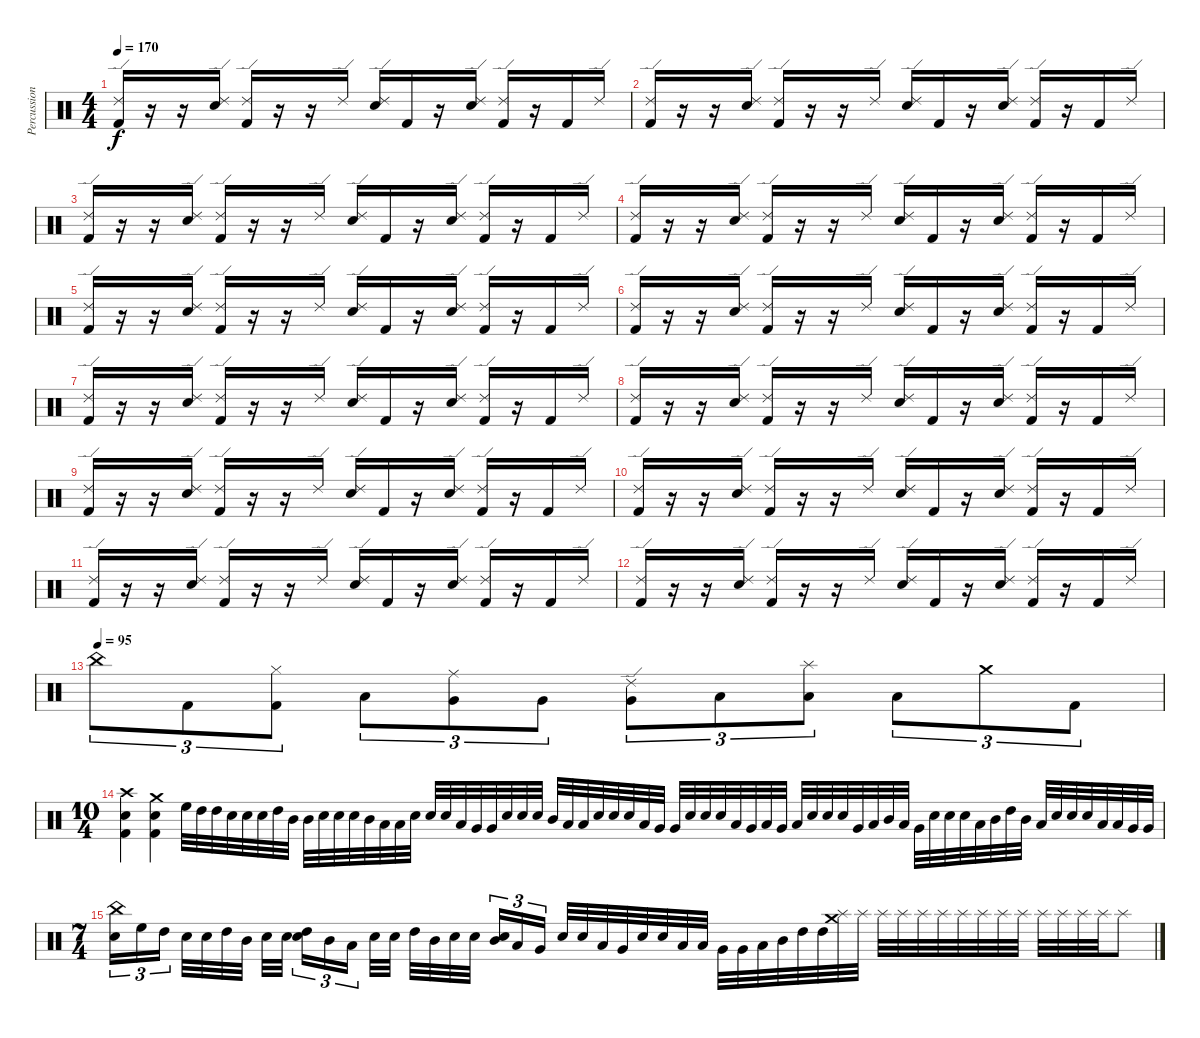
\track ("Percussion" "Percussion") {instrument percussion}
\staff {score}
\articulation defaults
\ts (4 4)
\tempo 170
\clef neutral
\ks c
("Ride (edge) 2" "Kick (hit) 2").16{dy f} r.16 r.16 ("Ride (edge) 2" "Electric Snare (hit)").16 ("Ride (edge) 2" "Kick (hit) 2").16 r.16 r.16 "Ride (edge) 2".16 ("Ride (edge) 2" "Electric Snare (hit)").16 "Kick (hit) 2".16 r.16 ("Ride (edge) 2" "Electric Snare (hit)").16 ("Ride (edge) 2" "Kick (hit) 2").16 r.16 "Kick (hit) 2".16 "Ride (edge) 2".16 |
("Ride (edge) 2" "Kick (hit) 2").16 r.16 r.16 ("Ride (edge) 2" "Electric Snare (hit)").16 ("Ride (edge) 2" "Kick (hit) 2").16 r.16 r.16 "Ride (edge) 2".16 ("Ride (edge) 2" "Electric Snare (hit)").16 "Kick (hit) 2".16 r.16 ("Ride (edge) 2" "Electric Snare (hit)").16 ("Ride (edge) 2" "Kick (hit) 2").16 r.16 "Kick (hit) 2".16 "Ride (edge) 2".16 |
("Ride (edge) 2" "Kick (hit) 2").16 r.16 r.16 ("Ride (edge) 2" "Electric Snare (hit)").16 ("Ride (edge) 2" "Kick (hit) 2").16 r.16 r.16 "Ride (edge) 2".16 ("Ride (edge) 2" "Electric Snare (hit)").16 "Kick (hit) 2".16 r.16 ("Ride (edge) 2" "Electric Snare (hit)").16 ("Ride (edge) 2" "Kick (hit) 2").16 r.16 "Kick (hit) 2".16 "Ride (edge) 2".16 |
("Ride (edge) 2" "Kick (hit) 2").16 r.16 r.16 ("Ride (edge) 2" "Electric Snare (hit)").16 ("Ride (edge) 2" "Kick (hit) 2").16 r.16 r.16 "Ride (edge) 2".16 ("Ride (edge) 2" "Electric Snare (hit)").16 "Kick (hit) 2".16 r.16 ("Ride (edge) 2" "Electric Snare (hit)").16 ("Ride (edge) 2" "Kick (hit) 2").16 r.16 "Kick (hit) 2".16 "Ride (edge) 2".16 |
("Ride (edge) 2" "Kick (hit) 2").16 r.16 r.16 ("Ride (edge) 2" "Electric Snare (hit)").16 ("Ride (edge) 2" "Kick (hit) 2").16 r.16 r.16 "Ride (edge) 2".16 ("Ride (edge) 2" "Electric Snare (hit)").16 "Kick (hit) 2".16 r.16 ("Ride (edge) 2" "Electric Snare (hit)").16 ("Ride (edge) 2" "Kick (hit) 2").16 r.16 "Kick (hit) 2".16 "Ride (edge) 2".16 |
("Ride (edge) 2" "Kick (hit) 2").16 r.16 r.16 ("Ride (edge) 2" "Electric Snare (hit)").16 ("Ride (edge) 2" "Kick (hit) 2").16 r.16 r.16 "Ride (edge) 2".16 ("Ride (edge) 2" "Electric Snare (hit)").16 "Kick (hit) 2".16 r.16 ("Ride (edge) 2" "Electric Snare (hit)").16 ("Ride (edge) 2" "Kick (hit) 2").16 r.16 "Kick (hit) 2".16 "Ride (edge) 2".16 |
("Ride (edge) 2" "Kick (hit) 2").16 r.16 r.16 ("Ride (edge) 2" "Electric Snare (hit)").16 ("Ride (edge) 2" "Kick (hit) 2").16 r.16 r.16 "Ride (edge) 2".16 ("Ride (edge) 2" "Electric Snare (hit)").16 "Kick (hit) 2".16 r.16 ("Ride (edge) 2" "Electric Snare (hit)").16 ("Ride (edge) 2" "Kick (hit) 2").16 r.16 "Kick (hit) 2".16 "Ride (edge) 2".16 |
("Ride (edge) 2" "Kick (hit) 2").16 r.16 r.16 ("Ride (edge) 2" "Electric Snare (hit)").16 ("Ride (edge) 2" "Kick (hit) 2").16 r.16 r.16 "Ride (edge) 2".16 ("Ride (edge) 2" "Electric Snare (hit)").16 "Kick (hit) 2".16 r.16 ("Ride (edge) 2" "Electric Snare (hit)").16 ("Ride (edge) 2" "Kick (hit) 2").16 r.16 "Kick (hit) 2".16 "Ride (edge) 2".16 |
("Ride (edge) 2" "Kick (hit) 2").16 r.16 r.16 ("Ride (edge) 2" "Electric Snare (hit)").16 ("Ride (edge) 2" "Kick (hit) 2").16 r.16 r.16 "Ride (edge) 2".16 ("Ride (edge) 2" "Electric Snare (hit)").16 "Kick (hit) 2".16 r.16 ("Ride (edge) 2" "Electric Snare (hit)").16 ("Ride (edge) 2" "Kick (hit) 2").16 r.16 "Kick (hit) 2".16 "Ride (edge) 2".16 |
("Ride (edge) 2" "Kick (hit) 2").16 r.16 r.16 ("Ride (edge) 2" "Electric Snare (hit)").16 ("Ride (edge) 2" "Kick (hit) 2").16 r.16 r.16 "Ride (edge) 2".16 ("Ride (edge) 2" "Electric Snare (hit)").16 "Kick (hit) 2".16 r.16 ("Ride (edge) 2" "Electric Snare (hit)").16 ("Ride (edge) 2" "Kick (hit) 2").16 r.16 "Kick (hit) 2".16 "Ride (edge) 2".16 |
("Ride (edge) 2" "Kick (hit) 2").16 r.16 r.16 ("Ride (edge) 2" "Electric Snare (hit)").16 ("Ride (edge) 2" "Kick (hit) 2").16 r.16 r.16 "Ride (edge) 2".16 ("Ride (edge) 2" "Electric Snare (hit)").16 "Kick (hit) 2".16 r.16 ("Ride (edge) 2" "Electric Snare (hit)").16 ("Ride (edge) 2" "Kick (hit) 2").16 r.16 "Kick (hit) 2".16 "Ride (edge) 2".16 |
("Ride (edge) 2" "Kick (hit) 2").16 r.16 r.16 ("Ride (edge) 2" "Electric Snare (hit)").16 ("Ride (edge) 2" "Kick (hit) 2").16 r.16 r.16 "Ride (edge) 2".16 ("Ride (edge) 2" "Electric Snare (hit)").16 "Kick (hit) 2".16 r.16 ("Ride (edge) 2" "Electric Snare (hit)").16 ("Ride (edge) 2" "Kick (hit) 2").16 r.16 "Kick (hit) 2".16 "Ride (edge) 2".16 |
\tempo (95)
"China (hit)".8{tu (3 2)} "Kick (hit) 2".8{tu (3 2)} ("Hi-Hat (closed)" "Kick (hit) 2").8{tu (3 2)} "Low Tom (hit)".8{tu (3 2)} ("Ride (middle)" "Very Low Tom (hit)").8{tu (3 2)} "Very Low Tom (hit)".8{tu (3 2)} ("Ride (edge) 2" "Very Low Tom (hit)").8{tu (3 2)} "Low Floor Tom (hit)".8{tu (3 2)} ("Splash (hit)" "Low Floor Tom (hit)").8{tu (3 2)} "Low Floor Tom (hit)".8{tu (3 2)} "Crash medium (hit)".8{tu (3 2)} "Kick (hit) 2".8{tu (3 2)} |
\ts (10 4)
("Crash high (hit)" "Electric Snare (hit)" "Kick (hit) 2").4 ("Crash medium (hit)" "Electric Snare (hit)" "Kick (hit) 2").4 "High Floor Tom (hit)".32 "High Tom (hit)".32 "High Tom (hit)".32 "Electric Snare (hit)".32 "Electric Snare (hit)".32 "Electric Snare (hit)".32 "High Tom (hit)".32 "Mid Tom (hit)".32 "Mid Tom (hit)".32 "Electric Snare (hit)".32 "Electric Snare (hit)".32 "Electric Snare (hit)".32 "Mid Tom (hit)".32 "Low Tom (hit)".32 "Low Tom (hit)".32 "Electric Snare (hit)".32 "Electric Snare (hit)".32 "Electric Snare (hit)".32 "Low Tom (hit)".32 "Very Low Tom (hit)".32 "Very Low Tom (hit)".32 "Electric Snare (hit)".32 "Electric Snare (hit)".32 "Electric Snare (hit)".32 "Mid Tom (hit)".32 "Low Tom (hit)".32 "Low Tom (hit)".32 "Electric Snare (hit)".32 "Electric Snare (hit)".32 "Electric Snare (hit)".32 "Low Tom (hit)".32 "Very Low Tom (hit)".32 "Very Low Tom (hit)".32 "Electric Snare (hit)".32 "Electric Snare (hit)".32 "Electric Snare (hit)".32 "Low Floor Tom (hit)".32 "Very Low Tom (hit)".32 "Low Tom (hit)".32 "Very Low Tom (hit)".32 "Low Floor Tom (hit)".32 "Electric Snare (hit)".32 "Electric Snare (hit)".32 "Electric Snare (hit)".32 "Very Low Tom (hit)".32 "Low Tom (hit)".32 "Mid Tom (hit)".32 "Low Tom (hit)".32 "Very Low Tom (hit)".32 "Electric Snare (hit)".32 "Electric Snare (hit)".32 "Electric Snare (hit)".32 "Low Tom (hit)".32 "Mid Tom (hit)".32 "High Tom (hit)".32 "Mid Tom (hit)".32 "Low Tom (hit)".32 "Electric Snare (hit)".32 "Electric Snare (hit)".32 "Electric Snare (hit)".32 "Low Floor Tom (hit)".32 "Low Floor Tom (hit)".32 "Very Low Tom (hit)".32 "Very Low Tom (hit)".32 |
\ts (7 4)
("China (hit)" "Electric Snare (hit)").16{tu (3 2)} "High Floor Tom (hit)".16{tu (3 2)} "High Tom (hit)".16{tu (3 2) beam splitsecondary} "Electric Snare (hit)".32 "Electric Snare (hit)".32 "High Tom (hit)".32 "Mid Tom (hit)".32 "Electric Snare (hit)".32 "Electric Snare (hit)".32{beam splitsecondary} ("High Tom (hit)" "Electric Snare (hit)").16{tu (3 2)} "Mid Tom (hit)".16{tu (3 2)} "Low Tom (hit)".16{tu (3 2) beam splitsecondary} "Electric Snare (hit)".32 "Electric Snare (hit)".32 "High Tom (hit)".32 "Mid Tom (hit)".32 "Electric Snare (hit)".32 "Electric Snare (hit)".32{beam splitsecondary} ("Mid Tom (hit)" "Electric Snare (hit)").16{tu (3 2)} "Low Tom (hit)".16{tu (3 2)} "Very Low Tom (hit)".16{tu (3 2)} "Electric Snare (hit)".32 "Electric Snare (hit)".32 "Low Tom (hit)".32 "Very Low Tom (hit)".32 "Electric Snare (hit)".32 "Electric Snare (hit)".32 "Low Floor Tom (hit)".32 "Low Floor Tom (hit)".32 "Very Low Tom (hit)".32 "Very Low Tom (hit)".32 "Low Tom (hit)".32 "Mid Tom (hit)".32 "High Tom (hit)".32 "High Tom (hit)".32 ("Crash medium (hit)" "Splash (hit)").32 "Splash (hit)".32 "Splash (hit)".32 "Splash (hit)".32 "Splash (hit)".32 "Splash (hit)".32 "Splash (hit)".32 "Splash (hit)".32 "Splash (hit)".32 "Splash (hit)".32 "Splash (hit)".32 "Splash (hit)".32 "Splash (hit)".32 "Splash (hit)".32 "Splash (hit)".8
